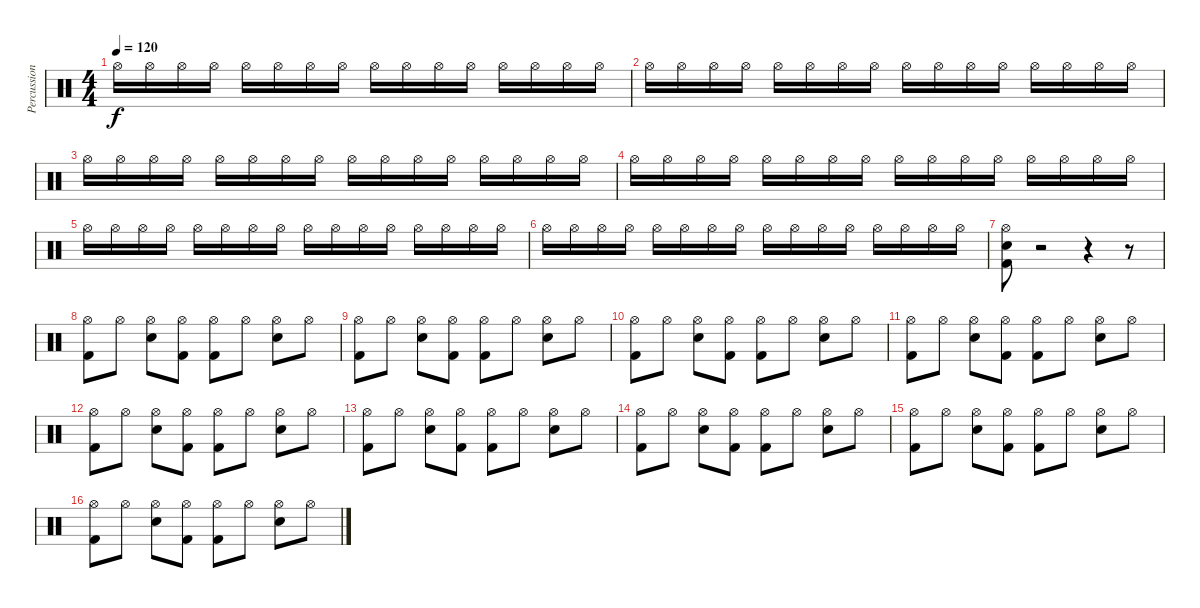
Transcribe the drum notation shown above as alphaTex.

\track ("Percussion" "Percussion") {instrument percussion}
\staff {score}
\articulation defaults
\ts (4 4)
\tempo 120
\clef neutral
\ks c "Hi-Hat (open)".16{dy f} "Hi-Hat (open)".16 "Hi-Hat (open)".16 "Hi-Hat (open)".16 "Hi-Hat (open)".16 "Hi-Hat (open)".16 "Hi-Hat (open)".16 "Hi-Hat (open)".16 "Hi-Hat (open)".16 "Hi-Hat (open)".16 "Hi-Hat (open)".16 "Hi-Hat (open)".16 "Hi-Hat (open)".16 "Hi-Hat (open)".16 "Hi-Hat (open)".16 "Hi-Hat (open)".16
|
"Hi-Hat (open)".16 "Hi-Hat (open)".16 "Hi-Hat (open)".16 "Hi-Hat (open)".16 "Hi-Hat (open)".16 "Hi-Hat (open)".16 "Hi-Hat (open)".16 "Hi-Hat (open)".16 "Hi-Hat (open)".16 "Hi-Hat (open)".16 "Hi-Hat (open)".16 "Hi-Hat (open)".16 "Hi-Hat (open)".16 "Hi-Hat (open)".16 "Hi-Hat (open)".16 "Hi-Hat (open)".16 |
"Hi-Hat (open)".16 "Hi-Hat (open)".16 "Hi-Hat (open)".16 "Hi-Hat (open)".16 "Hi-Hat (open)".16 "Hi-Hat (open)".16 "Hi-Hat (open)".16 "Hi-Hat (open)".16 "Hi-Hat (open)".16 "Hi-Hat (open)".16 "Hi-Hat (open)".16 "Hi-Hat (open)".16 "Hi-Hat (open)".16 "Hi-Hat (open)".16 "Hi-Hat (open)".16 "Hi-Hat (open)".16 |
"Hi-Hat (open)".16 "Hi-Hat (open)".16 "Hi-Hat (open)".16 "Hi-Hat (open)".16 "Hi-Hat (open)".16 "Hi-Hat (open)".16 "Hi-Hat (open)".16 "Hi-Hat (open)".16 "Hi-Hat (open)".16 "Hi-Hat (open)".16 "Hi-Hat (open)".16 "Hi-Hat (open)".16 "Hi-Hat (open)".16 "Hi-Hat (open)".16 "Hi-Hat (open)".16 "Hi-Hat (open)".16 |
"Hi-Hat (open)".16 "Hi-Hat (open)".16 "Hi-Hat (open)".16 "Hi-Hat (open)".16 "Hi-Hat (open)".16 "Hi-Hat (open)".16 "Hi-Hat (open)".16 "Hi-Hat (open)".16 "Hi-Hat (open)".16 "Hi-Hat (open)".16 "Hi-Hat (open)".16 "Hi-Hat (open)".16 "Hi-Hat (open)".16 "Hi-Hat (open)".16 "Hi-Hat (open)".16 "Hi-Hat (open)".16 |
"Hi-Hat (open)".16 "Hi-Hat (open)".16 "Hi-Hat (open)".16 "Hi-Hat (open)".16 "Hi-Hat (open)".16 "Hi-Hat (open)".16 "Hi-Hat (open)".16 "Hi-Hat (open)".16 "Hi-Hat (open)".16 "Hi-Hat (open)".16 "Hi-Hat (open)".16 "Hi-Hat (open)".16 "Hi-Hat (open)".16 "Hi-Hat (open)".16 "Hi-Hat (open)".16 "Hi-Hat (open)".16 |
("Hi-Hat (open)" "Snare (hit) 2" "Kick (hit) 2").8 r.2 r.4 r.8 |
("Hi-Hat (open)" "Kick (hit) 2").8 "Hi-Hat (open)".8 ("Hi-Hat (open)" "Snare (hit) 2").8 ("Hi-Hat (open)" "Kick (hit) 2").8 ("Hi-Hat (open)" "Kick (hit) 2").8 "Hi-Hat (open)".8 ("Hi-Hat (open)" "Snare (hit) 2").8 "Hi-Hat (open)".8 |
("Hi-Hat (open)" "Kick (hit) 2").8 "Hi-Hat (open)".8 ("Hi-Hat (open)" "Snare (hit) 2").8 ("Hi-Hat (open)" "Kick (hit) 2").8 ("Hi-Hat (open)" "Kick (hit) 2").8 "Hi-Hat (open)".8 ("Hi-Hat (open)" "Snare (hit) 2").8 "Hi-Hat (open)".8 |
("Hi-Hat (open)" "Kick (hit) 2").8 "Hi-Hat (open)".8 ("Hi-Hat (open)" "Snare (hit) 2").8 ("Hi-Hat (open)" "Kick (hit) 2").8 ("Hi-Hat (open)" "Kick (hit) 2").8 "Hi-Hat (open)".8 ("Hi-Hat (open)" "Snare (hit) 2").8 "Hi-Hat (open)".8 |
("Hi-Hat (open)" "Kick (hit) 2").8 "Hi-Hat (open)".8 ("Hi-Hat (open)" "Snare (hit) 2").8 ("Hi-Hat (open)" "Kick (hit) 2").8 ("Hi-Hat (open)" "Kick (hit) 2").8 "Hi-Hat (open)".8 ("Hi-Hat (open)" "Snare (hit) 2").8 "Hi-Hat (open)".8 |
("Hi-Hat (open)" "Kick (hit) 2").8 "Hi-Hat (open)".8 ("Hi-Hat (open)" "Snare (hit) 2").8 ("Hi-Hat (open)" "Kick (hit) 2").8 ("Hi-Hat (open)" "Kick (hit) 2").8 "Hi-Hat (open)".8 ("Hi-Hat (open)" "Snare (hit) 2").8 "Hi-Hat (open)".8 |
("Hi-Hat (open)" "Kick (hit) 2").8 "Hi-Hat (open)".8 ("Hi-Hat (open)" "Snare (hit) 2").8 ("Hi-Hat (open)" "Kick (hit) 2").8 ("Hi-Hat (open)" "Kick (hit) 2").8 "Hi-Hat (open)".8 ("Hi-Hat (open)" "Snare (hit) 2").8 "Hi-Hat (open)".8 |
("Hi-Hat (open)" "Kick (hit) 2").8 "Hi-Hat (open)".8 ("Hi-Hat (open)" "Snare (hit) 2").8 ("Hi-Hat (open)" "Kick (hit) 2").8 ("Hi-Hat (open)" "Kick (hit) 2").8 "Hi-Hat (open)".8 ("Hi-Hat (open)" "Snare (hit) 2").8 "Hi-Hat (open)".8 |
("Hi-Hat (open)" "Kick (hit) 2").8 "Hi-Hat (open)".8 ("Hi-Hat (open)" "Snare (hit) 2").8 ("Hi-Hat (open)" "Kick (hit) 2").8 ("Hi-Hat (open)" "Kick (hit) 2").8 "Hi-Hat (open)".8 ("Hi-Hat (open)" "Snare (hit) 2").8 "Hi-Hat (open)".8 |
("Hi-Hat (open)" "Kick (hit) 2").8 "Hi-Hat (open)".8 ("Hi-Hat (open)" "Snare (hit) 2").8 ("Hi-Hat (open)" "Kick (hit) 2").8 ("Hi-Hat (open)" "Kick (hit) 2").8 "Hi-Hat (open)".8 ("Hi-Hat (open)" "Snare (hit) 2").8 "Hi-Hat (open)".8
